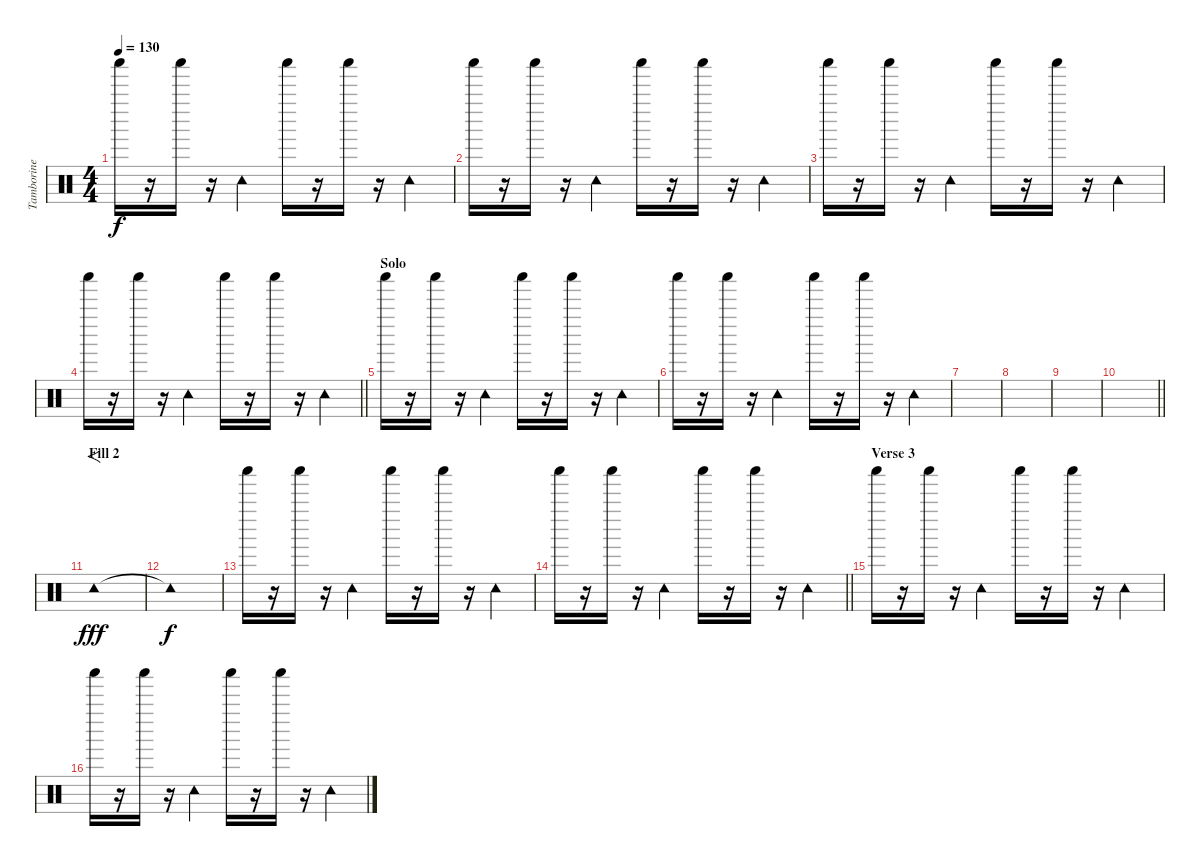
\track ("Tamborine" "Tamborine") {instrument percussion}
\staff {score}
\articulation defaults
\ts (4 4)
\tempo 130
\clef neutral
\ks c "Shaker (hit)".16{dy f}
r.16 "Shaker (hit)".16 r.16 "Tambourine (hit)".4 "Shaker (hit)".16 r.16 "Shaker (hit)".16 r.16 "Tambourine (hit)".4 |
"Shaker (hit)".16 r.16 "Shaker (hit)".16 r.16 "Tambourine (hit)".4 "Shaker (hit)".16 r.16 "Shaker (hit)".16 r.16 "Tambourine (hit)".4 |
"Shaker (hit)".16 r.16 "Shaker (hit)".16 r.16 "Tambourine (hit)".4 "Shaker (hit)".16 r.16 "Shaker (hit)".16 r.16 "Tambourine (hit)".4 |
\barLineRight lightlight "Shaker (hit)".16
r.16 "Shaker (hit)".16 r.16 "Tambourine (hit)".4 "Shaker (hit)".16 r.16 "Shaker (hit)".16 r.16 "Tambourine (hit)".4 |
\section ("" "Solo")
"Shaker (hit)".16 r.16 "Shaker (hit)".16 r.16 "Tambourine (hit)".4 "Shaker (hit)".16 r.16 "Shaker (hit)".16 r.16 "Tambourine (hit)".4 |
"Shaker (hit)".16 r.16 "Shaker (hit)".16 r.16 "Tambourine (hit)".4 "Shaker (hit)".16 r.16 "Shaker (hit)".16 r.16 "Tambourine (hit)".4 |
|
|
|
\barLineRight lightlight
|
\section ("" "Fill 2")
"Tambourine (hit)"{tr (54 32)}.1{f dy fff} |
"Tambourine (hit)"{t}.1{dy f} |
"Shaker (hit)".16 r.16 "Shaker (hit)".16 r.16 "Tambourine (hit)".4 "Shaker (hit)".16 r.16 "Shaker (hit)".16 r.16 "Tambourine (hit)".4 |
\barLineRight lightlight "Shaker (hit)".16
r.16 "Shaker (hit)".16 r.16 "Tambourine (hit)".4 "Shaker (hit)".16 r.16 "Shaker (hit)".16 r.16 "Tambourine (hit)".4 |
\section ("" "Verse 3")
"Shaker (hit)".16 r.16 "Shaker (hit)".16 r.16 "Tambourine (hit)".4 "Shaker (hit)".16 r.16 "Shaker (hit)".16 r.16 "Tambourine (hit)".4 |
"Shaker (hit)".16 r.16 "Shaker (hit)".16 r.16 "Tambourine (hit)".4 "Shaker (hit)".16 r.16 "Shaker (hit)".16 r.16 "Tambourine (hit)".4
